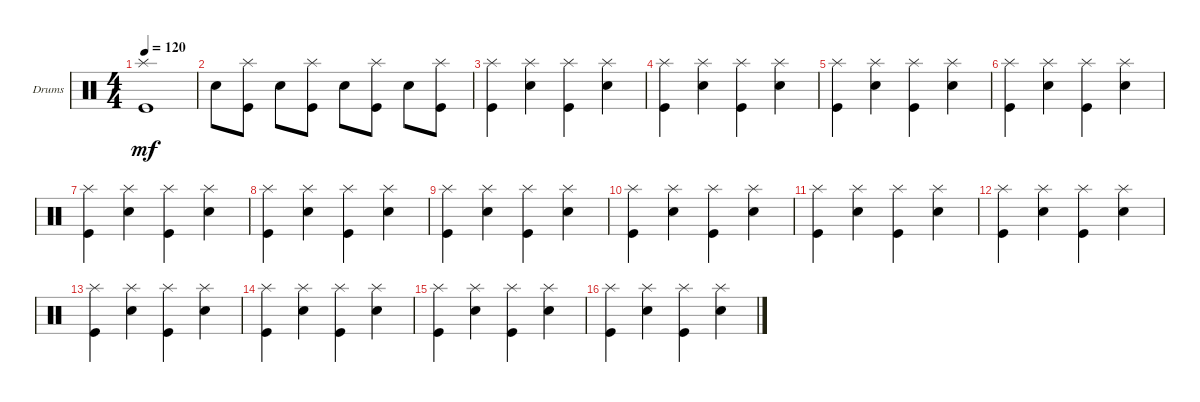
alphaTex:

\bracketExtendMode groupsimilarinstruments
\firstSystemTrackNameOrientation horizontal
\otherSystemsTrackNameOrientation horizontal
\track ("Drumkit" "Drums") {instrument percussion}
\staff {score}
\articulation defaults
\ts (4 4)
\tempo 120
\clef neutral
\ks c
("Kick (hit)" "Splash (hit)").1{dy mf} |
"Snare (hit) 2".8 ("Kick (hit)" "Splash (hit)").8 "Snare (hit) 2".8 ("Kick (hit)" "Splash (hit)").8 "Snare (hit) 2".8 ("Kick (hit)" "Splash (hit)").8 "Snare (hit) 2".8 ("Kick (hit)" "Splash (hit)").8 |
("Kick (hit)" "Splash (hit)").4 ("Splash (hit)" "Snare (hit) 2").4 ("Splash (hit)" "Kick (hit)").4 ("Splash (hit)" "Snare (hit) 2").4 |
("Kick (hit)" "Splash (hit)").4 ("Splash (hit)" "Snare (hit) 2").4 ("Splash (hit)" "Kick (hit)").4 ("Splash (hit)" "Snare (hit) 2").4 |
("Kick (hit)" "Splash (hit)").4 ("Splash (hit)" "Snare (hit) 2").4 ("Splash (hit)" "Kick (hit)").4 ("Splash (hit)" "Snare (hit) 2").4 |
("Kick (hit)" "Splash (hit)").4 ("Splash (hit)" "Snare (hit) 2").4 ("Splash (hit)" "Kick (hit)").4 ("Splash (hit)" "Snare (hit) 2").4 |
("Kick (hit)" "Splash (hit)").4 ("Splash (hit)" "Snare (hit) 2").4 ("Splash (hit)" "Kick (hit)").4 ("Splash (hit)" "Snare (hit) 2").4 |
("Kick (hit)" "Splash (hit)").4 ("Splash (hit)" "Snare (hit) 2").4 ("Splash (hit)" "Kick (hit)").4 ("Splash (hit)" "Snare (hit) 2").4 |
("Kick (hit)" "Splash (hit)").4 ("Splash (hit)" "Snare (hit) 2").4 ("Splash (hit)" "Kick (hit)").4 ("Splash (hit)" "Snare (hit) 2").4 |
("Kick (hit)" "Splash (hit)").4 ("Splash (hit)" "Snare (hit) 2").4 ("Splash (hit)" "Kick (hit)").4 ("Splash (hit)" "Snare (hit) 2").4 |
("Kick (hit)" "Splash (hit)").4 ("Splash (hit)" "Snare (hit) 2").4 ("Splash (hit)" "Kick (hit)").4 ("Splash (hit)" "Snare (hit) 2").4 |
("Kick (hit)" "Splash (hit)").4 ("Splash (hit)" "Snare (hit) 2").4 ("Splash (hit)" "Kick (hit)").4 ("Splash (hit)" "Snare (hit) 2").4 |
("Kick (hit)" "Splash (hit)").4 ("Splash (hit)" "Snare (hit) 2").4 ("Splash (hit)" "Kick (hit)").4 ("Splash (hit)" "Snare (hit) 2").4 |
("Kick (hit)" "Splash (hit)").4 ("Splash (hit)" "Snare (hit) 2").4 ("Splash (hit)" "Kick (hit)").4 ("Splash (hit)" "Snare (hit) 2").4 |
("Kick (hit)" "Splash (hit)").4 ("Splash (hit)" "Snare (hit) 2").4 ("Splash (hit)" "Kick (hit)").4 ("Splash (hit)" "Snare (hit) 2").4 |
("Kick (hit)" "Splash (hit)").4 ("Splash (hit)" "Snare (hit) 2").4 ("Splash (hit)" "Kick (hit)").4 ("Splash (hit)" "Snare (hit) 2").4
